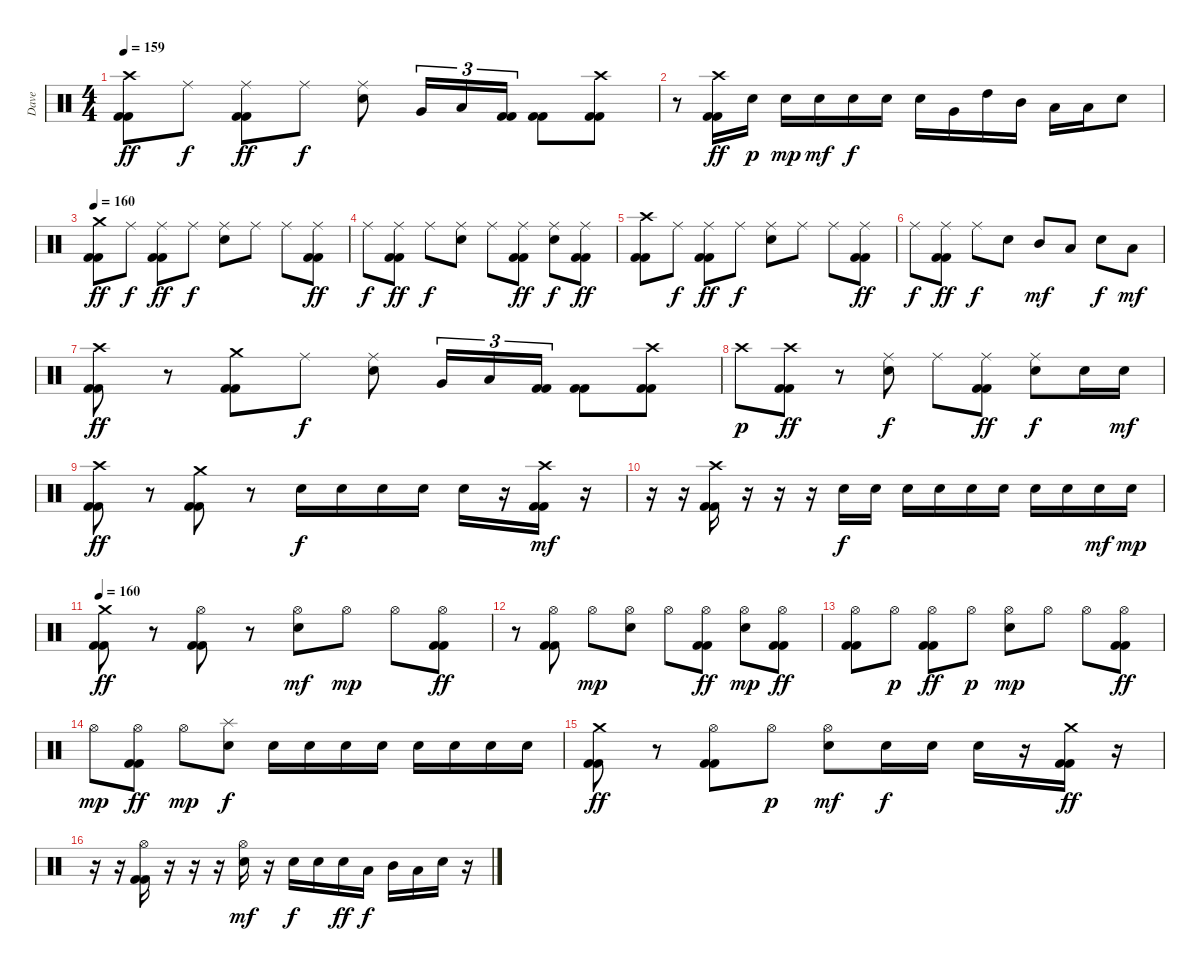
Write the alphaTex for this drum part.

\track ("Dave" "Dave") {instrument percussion}
\staff {score}
\articulation defaults
\ts (4 4)
\tempo 159
\clef neutral
\ks c
("Crash high (hit)" "Kick (hit) 2" "Kick (hit) 2").8{dy ff} "Ride (middle)".8{dy f} ("Ride (middle)" "Kick (hit) 2" "Kick (hit) 2").8{dy ff} "Ride (middle)".8{dy f} ("Ride (middle)" "Electric Snare (hit)").8 "Very Low Tom (hit)".16{tu (3 2)} "Low Floor Tom (hit)".16{tu (3 2)} ("Kick (hit) 2" "Kick (hit) 2").16{tu (3 2)} ("Kick (hit) 2" "Kick (hit) 2").8 ("Crash high (hit)" "Kick (hit) 2" "Kick (hit) 2").8 |
r.8 ("Crash high (hit)" "Kick (hit) 2" "Kick (hit) 2").16{dy ff} "Electric Snare (hit)".16{dy p} "Electric Snare (hit)".16{dy mp} "Electric Snare (hit)".16{dy mf} "Electric Snare (hit)".16{dy f} "Electric Snare (hit)".16 "Electric Snare (hit)".16 "Very Low Tom (hit)".16 "High Tom (hit)".16 "Mid Tom (hit)".16 "Low Tom (hit)".16 "Low Floor Tom (hit)".16 "Electric Snare (hit)".8 |
\tempo 160
("Crash medium (hit)" "Kick (hit) 2" "Kick (hit) 2").8{dy ff} "Ride (middle)".8{dy f} ("Ride (middle)" "Kick (hit) 2" "Kick (hit) 2").8{dy ff} "Ride (middle)".8{dy f} ("Ride (middle)" "Electric Snare (hit)").8 "Ride (middle)".8 "Ride (middle)".8 ("Ride (middle)" "Kick (hit) 2" "Kick (hit) 2").8{dy ff} |
"Ride (middle)".8{dy f} ("Ride (middle)" "Kick (hit) 2" "Kick (hit) 2").8{dy ff} "Ride (middle)".8{dy f} ("Ride (middle)" "Electric Snare (hit)").8 "Ride (middle)".8 ("Ride (middle)" "Kick (hit) 2" "Kick (hit) 2").8{dy ff} ("Ride (middle)" "Electric Snare (hit)").8{dy f} ("Ride (middle)" "Kick (hit) 2" "Kick (hit) 2").8{dy ff} |
("Crash high (hit)" "Kick (hit) 2" "Kick (hit) 2").8 "Ride (middle)".8{dy f} ("Ride (middle)" "Kick (hit) 2" "Kick (hit) 2").8{dy ff} "Ride (middle)".8{dy f} ("Ride (middle)" "Electric Snare (hit)").8 "Ride (middle)".8 "Ride (middle)".8 ("Ride (middle)" "Kick (hit) 2" "Kick (hit) 2").8{dy ff} |
"Ride (middle)".8{dy f} ("Ride (middle)" "Kick (hit) 2" "Kick (hit) 2").8{dy ff} "Ride (middle)".8{dy f} "Electric Snare (hit)".8 "Mid Tom (hit)".8{dy mf} "Low Tom (hit)".8 "Electric Snare (hit)".8{dy f} "Low Tom (hit)".8{dy mf} |
("Crash high (hit)" "Kick (hit) 2" "Kick (hit) 2").8{dy ff} r.8 ("Crash medium (hit)" "Kick (hit) 2" "Kick (hit) 2").8 "Ride (middle)".8{dy f} ("Ride (middle)" "Electric Snare (hit)").8 "Very Low Tom (hit)".16{tu (3 2)} "Low Floor Tom (hit)".16{tu (3 2)} ("Kick (hit) 2" "Kick (hit) 2").16{tu (3 2)} ("Kick (hit) 2" "Kick (hit) 2").8 ("Crash high (hit)" "Kick (hit) 2" "Kick (hit) 2").8 |
"Crash high (hit)".8{dy p} ("Crash high (hit)" "Kick (hit) 2" "Kick (hit) 2").8{dy ff} r.8 ("Ride (middle)" "Electric Snare (hit)").8{dy f} "Ride (middle)".8 ("Ride (middle)" "Kick (hit) 2" "Kick (hit) 2").8{dy ff} ("Ride (middle)" "Electric Snare (hit)").8{dy f} "Electric Snare (hit)".16 "Electric Snare (hit)".16{dy mf} |
("Crash high (hit)" "Kick (hit) 2" "Kick (hit) 2").8{dy ff} r.8 ("Crash medium (hit)" "Kick (hit) 2" "Kick (hit) 2").8 r.8 "Electric Snare (hit)".16{dy f} "Electric Snare (hit)".16 "Electric Snare (hit)".16 "Electric Snare (hit)".16 "Electric Snare (hit)".16 r.16 ("Crash high (hit)" "Kick (hit) 2" "Kick (hit) 2").16{dy mf} r.16 |
r.16 r.16 ("Crash high (hit)" "Kick (hit) 2" "Kick (hit) 2").16 r.16 r.16 r.16 "Electric Snare (hit)".16{dy f} "Electric Snare (hit)".16 "Electric Snare (hit)".16 "Electric Snare (hit)".16 "Electric Snare (hit)".16 "Electric Snare (hit)".16 "Electric Snare (hit)".16 "Electric Snare (hit)".16 "Electric Snare (hit)".16{dy mf} "Electric Snare (hit)".16{dy mp} |
\tempo 160
("Crash medium (hit)" "Kick (hit) 2" "Kick (hit) 2").8{dy ff} r.8 ("Hi-Hat (open)" "Kick (hit) 2" "Kick (hit) 2").8 r.8 ("Hi-Hat (open)" "Electric Snare (hit)").8{dy mf} "Hi-Hat (open)".8{dy mp} "Hi-Hat (open)".8 ("Hi-Hat (open)" "Kick (hit) 2" "Kick (hit) 2").8{dy ff} |
r.8 ("Hi-Hat (open)" "Kick (hit) 2" "Kick (hit) 2").8 "Hi-Hat (open)".8{dy mp} ("Hi-Hat (open)" "Electric Snare (hit)").8 "Hi-Hat (open)".8 ("Hi-Hat (open)" "Kick (hit) 2" "Kick (hit) 2").8{dy ff} ("Hi-Hat (open)" "Electric Snare (hit)").8{dy mp} ("Hi-Hat (open)" "Kick (hit) 2" "Kick (hit) 2").8{dy ff} |
("Hi-Hat (open)" "Kick (hit) 2" "Kick (hit) 2").8 "Hi-Hat (open)".8{dy p} ("Hi-Hat (open)" "Kick (hit) 2" "Kick (hit) 2").8{dy ff} "Hi-Hat (open)".8{dy p} ("Hi-Hat (open)" "Electric Snare (hit)").8{dy mp} "Hi-Hat (open)".8 "Hi-Hat (open)".8 ("Hi-Hat (open)" "Kick (hit) 2" "Kick (hit) 2").8{dy ff} |
"Hi-Hat (open)".8{dy mp} ("Hi-Hat (open)" "Kick (hit) 2" "Kick (hit) 2").8{dy ff} "Hi-Hat (open)".8{dy mp} ("Splash (hit)" "Electric Snare (hit)").8{dy f} "Electric Snare (hit)".16 "Electric Snare (hit)".16 "Electric Snare (hit)".16 "Electric Snare (hit)".16 "Electric Snare (hit)".16 "Electric Snare (hit)".16 "Electric Snare (hit)".16 "Electric Snare (hit)".16 |
("Crash medium (hit)" "Kick (hit) 2" "Kick (hit) 2").8{dy ff} r.8 ("Hi-Hat (open)" "Kick (hit) 2" "Kick (hit) 2").8 "Hi-Hat (open)".8{dy p} ("Hi-Hat (open)" "Electric Snare (hit)").8{dy mf} "Electric Snare (hit)".16{dy f} "Electric Snare (hit)".16 "Electric Snare (hit)".16 r.16 ("Crash medium (hit)" "Kick (hit) 2" "Kick (hit) 2").16{dy ff} r.16 |
r.16 r.16 ("Hi-Hat (open)" "Kick (hit) 2" "Kick (hit) 2").16 r.16 r.16 r.16 ("Hi-Hat (open)" "Electric Snare (hit)").16{dy mf} r.16 "Electric Snare (hit)".16{dy f} "Electric Snare (hit)".16 "Electric Snare (hit)".16{dy ff} "Low Tom (hit)".16{dy f} "Mid Tom (hit)".16 "Low Tom (hit)".16 "Electric Snare (hit)".16 r.16
